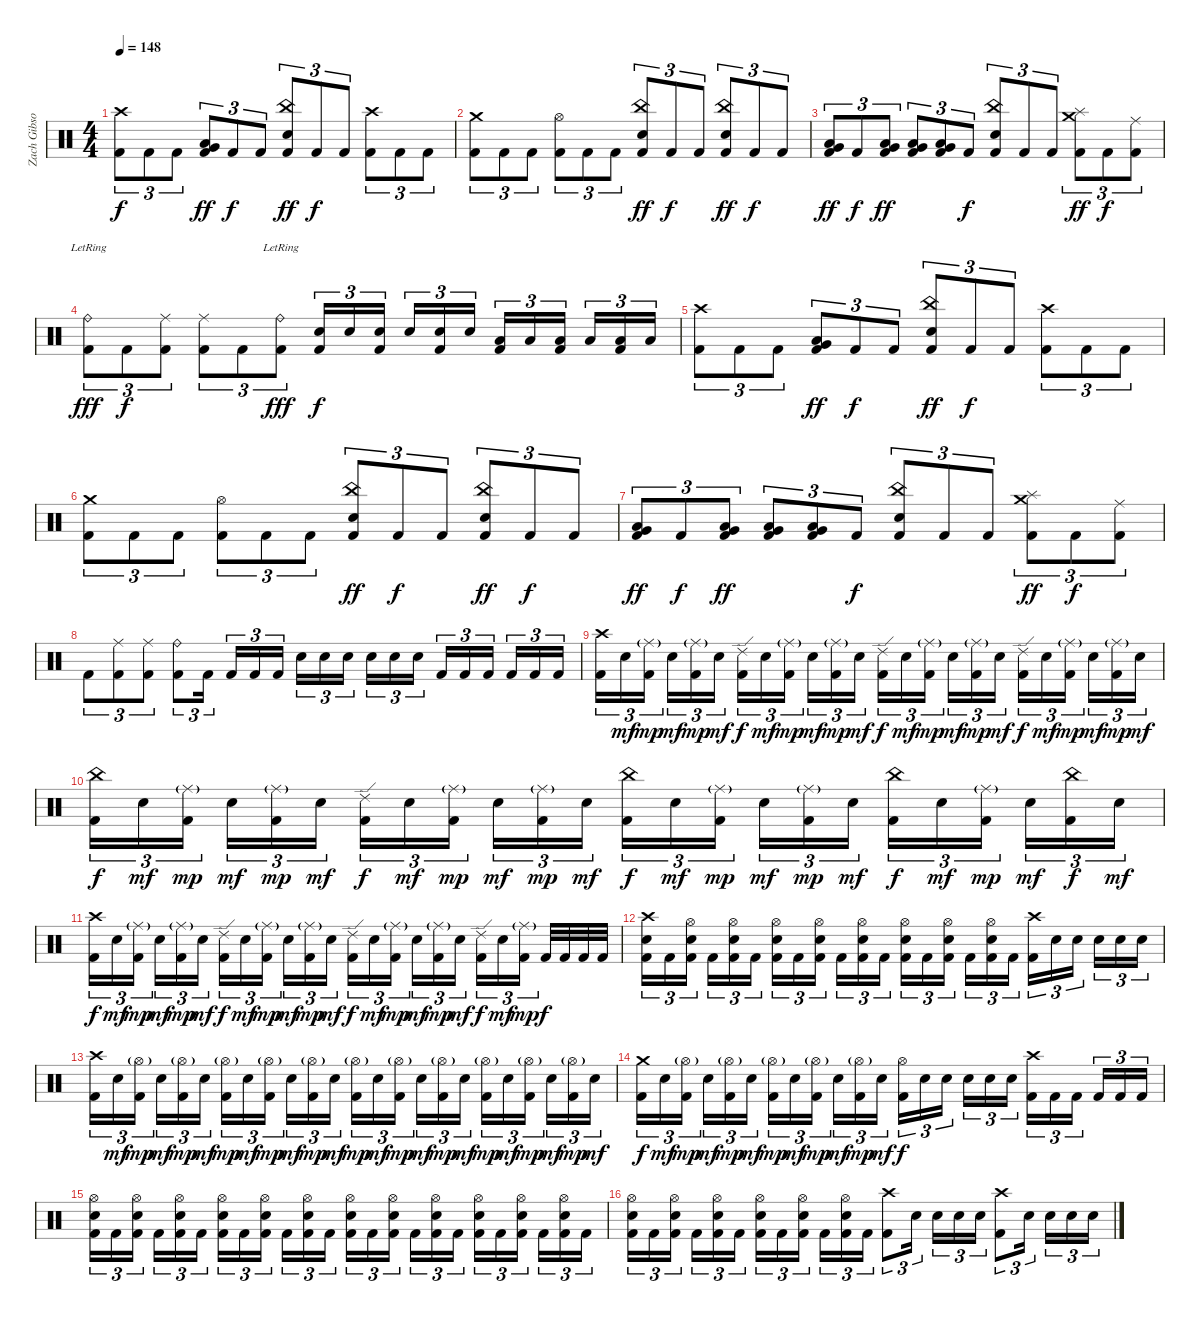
\track ("Zach Gibson (Ex-Drums)" "Zach Gibso") {instrument percussion}
\staff {score}
\articulation defaults
\ts (4 4)
\tempo 148
\clef neutral
\ks c
("Crash high (hit)" "Kick (hit) 2").8{tu (3 2) dy f} "Kick (hit) 2".8{tu (3 2)} "Kick (hit) 2".8{tu (3 2)} ("Very Low Tom (hit)" "Low Tom (hit)" "Kick (hit) 2").8{tu (3 2) dy ff} "Kick (hit) 2".8{tu (3 2) dy f} "Kick (hit) 2".8{tu (3 2)} ("China (hit)" "Snare (hit) 2" "Kick (hit) 2").8{tu (3 2) dy ff} "Kick (hit) 2".8{tu (3 2) dy f} "Kick (hit) 2".8{tu (3 2)} ("Crash high (hit)" "Kick (hit) 2").8{tu (3 2)} "Kick (hit) 2".8{tu (3 2)} "Kick (hit) 2".8{tu (3 2)} |
("Crash medium (hit)" "Kick (hit) 2").8{tu (3 2)} "Kick (hit) 2".8{tu (3 2)} "Kick (hit) 2".8{tu (3 2)} ("Hi-Hat (open)" "Kick (hit) 2").8{tu (3 2)} "Kick (hit) 2".8{tu (3 2)} "Kick (hit) 2".8{tu (3 2)} ("China (hit)" "Snare (hit) 2" "Kick (hit) 2").8{tu (3 2) dy ff} "Kick (hit) 2".8{tu (3 2) dy f} "Kick (hit) 2".8{tu (3 2)} ("China (hit)" "Snare (hit) 2" "Kick (hit) 2").8{tu (3 2) dy ff} "Kick (hit) 2".8{tu (3 2) dy f} "Kick (hit) 2".8{tu (3 2)} |
("Very Low Tom (hit)" "Low Tom (hit)" "Kick (hit) 2").8{tu (3 2) dy ff} "Kick (hit) 2".8{tu (3 2) dy f} ("Low Floor Tom (hit)" "Very Low Tom (hit)" "Kick (hit) 2").8{tu (3 2) dy ff} ("Low Floor Tom (hit)" "Very Low Tom (hit)" "Kick (hit) 2").8{tu (3 2)} ("Low Floor Tom (hit)" "Very Low Tom (hit)" "Kick (hit) 2").8{tu (3 2)} "Kick (hit) 2".8{tu (3 2) dy f} ("China (hit)" "Snare (hit) 2" "Kick (hit) 2").8{tu (3 2)} "Kick (hit) 2".8{tu (3 2)} "Kick (hit) 2".8{tu (3 2)} ("Crash medium (hit)" "Splash (hit)" "Kick (hit) 2").8{tu (3 2) dy ff} "Kick (hit) 2".8{tu (3 2) dy f} ("Ride (middle)" "Kick (hit) 2").8{tu (3 2)} |
("Ride (bell)"{lr} "Kick (hit) 2").8{tu (3 2) dy fff} "Kick (hit) 2".8{tu (3 2) dy f} ("Ride (middle)" "Kick (hit) 2").8{tu (3 2)} ("Ride (middle)" "Kick (hit) 2").8{tu (3 2)} "Kick (hit) 2".8{tu (3 2)} ("Ride (bell)"{lr} "Kick (hit) 2").8{tu (3 2) dy fff} ("Snare (hit) 2" "Kick (hit) 2").16{tu (3 2) dy f} "Snare (hit) 2".16{tu (3 2)} ("Snare (hit) 2" "Kick (hit) 2").16{tu (3 2)} "Snare (hit) 2".16{tu (3 2)} ("Snare (hit) 2" "Kick (hit) 2").16{tu (3 2)} "Snare (hit) 2".16{tu (3 2)} ("Low Tom (hit)" "Kick (hit) 2").16{tu (3 2)} "Low Tom (hit)".16{tu (3 2)} ("Low Tom (hit)" "Kick (hit) 2").16{tu (3 2)} "Low Tom (hit)".16{tu (3 2)} ("Low Tom (hit)" "Kick (hit) 2").16{tu (3 2)} "Low Tom (hit)".16{tu (3 2)} |
("Crash high (hit)" "Kick (hit) 2").8{tu (3 2)} "Kick (hit) 2".8{tu (3 2)} "Kick (hit) 2".8{tu (3 2)} ("Very Low Tom (hit)" "Low Tom (hit)" "Kick (hit) 2").8{tu (3 2) dy ff} "Kick (hit) 2".8{tu (3 2) dy f} "Kick (hit) 2".8{tu (3 2)} ("China (hit)" "Snare (hit) 2" "Kick (hit) 2").8{tu (3 2) dy ff} "Kick (hit) 2".8{tu (3 2) dy f} "Kick (hit) 2".8{tu (3 2)} ("Crash high (hit)" "Kick (hit) 2").8{tu (3 2)} "Kick (hit) 2".8{tu (3 2)} "Kick (hit) 2".8{tu (3 2)} |
("Crash medium (hit)" "Kick (hit) 2").8{tu (3 2)} "Kick (hit) 2".8{tu (3 2)} "Kick (hit) 2".8{tu (3 2)} ("Hi-Hat (open)" "Kick (hit) 2").8{tu (3 2)} "Kick (hit) 2".8{tu (3 2)} "Kick (hit) 2".8{tu (3 2)} ("China (hit)" "Snare (hit) 2" "Kick (hit) 2").8{tu (3 2) dy ff} "Kick (hit) 2".8{tu (3 2) dy f} "Kick (hit) 2".8{tu (3 2)} ("China (hit)" "Snare (hit) 2" "Kick (hit) 2").8{tu (3 2) dy ff} "Kick (hit) 2".8{tu (3 2) dy f} "Kick (hit) 2".8{tu (3 2)} |
("Very Low Tom (hit)" "Low Tom (hit)" "Kick (hit) 2").8{tu (3 2) dy ff} "Kick (hit) 2".8{tu (3 2) dy f} ("Low Floor Tom (hit)" "Very Low Tom (hit)" "Kick (hit) 2").8{tu (3 2) dy ff} ("Low Floor Tom (hit)" "Very Low Tom (hit)" "Kick (hit) 2").8{tu (3 2)} ("Low Floor Tom (hit)" "Very Low Tom (hit)" "Kick (hit) 2").8{tu (3 2)} "Kick (hit) 2".8{tu (3 2) dy f} ("China (hit)" "Snare (hit) 2" "Kick (hit) 2").8{tu (3 2)} "Kick (hit) 2".8{tu (3 2)} "Kick (hit) 2".8{tu (3 2)} ("Crash medium (hit)" "Splash (hit)" "Kick (hit) 2").8{tu (3 2) dy ff} "Kick (hit) 2".8{tu (3 2) dy f} ("Ride (middle)" "Kick (hit) 2").8{tu (3 2)} |
"Kick (hit) 2".8{tu (3 2)} ("Ride (middle)" "Kick (hit) 2").8{tu (3 2)} ("Ride (middle)" "Kick (hit) 2").8{tu (3 2)} ("Ride (bell)" "Kick (hit) 2").8{tu (3 2)} "Kick (hit) 2".16{tu (3 2)} "Kick (hit) 2".16{tu (3 2)} "Kick (hit) 2".16{tu (3 2)} "Kick (hit) 2".16{tu (3 2)} "Snare (hit) 2".16{tu (3 2)} "Snare (hit) 2".16{tu (3 2)} "Snare (hit) 2".16{tu (3 2)} "Snare (hit) 2".16{tu (3 2)} "Snare (hit) 2".16{tu (3 2)} "Snare (hit) 2".16{tu (3 2)} "Kick (hit) 2".16{tu (3 2)} "Kick (hit) 2".16{tu (3 2)} "Kick (hit) 2".16{tu (3 2)} "Kick (hit) 2".16{tu (3 2)} "Kick (hit) 2".16{tu (3 2)} "Kick (hit) 2".16{tu (3 2)} |
("Crash high (hit)" "Kick (hit) 2").16{tu (3 2)} "Snare (hit) 2".16{tu (3 2) dy mf} ("Ride (middle)"{g} "Kick (hit) 2").16{tu (3 2) dy mp} "Snare (hit) 2".16{tu (3 2) dy mf} ("Ride (middle)"{g} "Kick (hit) 2").16{tu (3 2) dy mp} "Snare (hit) 2".16{tu (3 2) dy mf} ("Ride (edge) 2" "Kick (hit) 2").16{tu (3 2) dy f} "Snare (hit) 2".16{tu (3 2) dy mf} ("Ride (middle)"{g} "Kick (hit) 2").16{tu (3 2) dy mp} "Snare (hit) 2".16{tu (3 2) dy mf} ("Ride (middle)"{g} "Kick (hit) 2").16{tu (3 2) dy mp} "Snare (hit) 2".16{tu (3 2) dy mf} ("Ride (edge) 2" "Kick (hit) 2").16{tu (3 2) dy f} "Snare (hit) 2".16{tu (3 2) dy mf} ("Ride (middle)"{g} "Kick (hit) 2").16{tu (3 2) dy mp} "Snare (hit) 2".16{tu (3 2) dy mf} ("Ride (middle)"{g} "Kick (hit) 2").16{tu (3 2) dy mp} "Snare (hit) 2".16{tu (3 2) dy mf} ("Ride (edge) 2" "Kick (hit) 2").16{tu (3 2) dy f} "Snare (hit) 2".16{tu (3 2) dy mf} ("Ride (middle)"{g} "Kick (hit) 2").16{tu (3 2) dy mp} "Snare (hit) 2".16{tu (3 2) dy mf} ("Ride (middle)"{g} "Kick (hit) 2").16{tu (3 2) dy mp} "Snare (hit) 2".16{tu (3 2) dy mf} |
("China (hit)" "Kick (hit) 2").16{tu (3 2) dy f} "Snare (hit) 2".16{tu (3 2) dy mf} ("Ride (middle)"{g} "Kick (hit) 2").16{tu (3 2) dy mp} "Snare (hit) 2".16{tu (3 2) dy mf} ("Ride (middle)"{g} "Kick (hit) 2").16{tu (3 2) dy mp} "Snare (hit) 2".16{tu (3 2) dy mf} ("Ride (edge) 2" "Kick (hit) 2").16{tu (3 2) dy f} "Snare (hit) 2".16{tu (3 2) dy mf} ("Ride (middle)"{g} "Kick (hit) 2").16{tu (3 2) dy mp} "Snare (hit) 2".16{tu (3 2) dy mf} ("Ride (middle)"{g} "Kick (hit) 2").16{tu (3 2) dy mp} "Snare (hit) 2".16{tu (3 2) dy mf} ("China (hit)" "Kick (hit) 2").16{tu (3 2) dy f} "Snare (hit) 2".16{tu (3 2) dy mf} ("Ride (middle)"{g} "Kick (hit) 2").16{tu (3 2) dy mp} "Snare (hit) 2".16{tu (3 2) dy mf} ("Ride (middle)"{g} "Kick (hit) 2").16{tu (3 2) dy mp} "Snare (hit) 2".16{tu (3 2) dy mf} ("China (hit)" "Kick (hit) 2").16{tu (3 2) dy f} "Snare (hit) 2".16{tu (3 2) dy mf} ("Ride (middle)"{g} "Kick (hit) 2").16{tu (3 2) dy mp} "Snare (hit) 2".16{tu (3 2) dy mf} ("China (hit)" "Kick (hit) 2").16{tu (3 2) dy f} "Snare (hit) 2".16{tu (3 2) dy mf} |
("Crash high (hit)" "Kick (hit) 2").16{tu (3 2) dy f} "Snare (hit) 2".16{tu (3 2) dy mf} ("Ride (middle)"{g} "Kick (hit) 2").16{tu (3 2) dy mp} "Snare (hit) 2".16{tu (3 2) dy mf} ("Ride (middle)"{g} "Kick (hit) 2").16{tu (3 2) dy mp} "Snare (hit) 2".16{tu (3 2) dy mf} ("Ride (edge) 2" "Kick (hit) 2").16{tu (3 2) dy f} "Snare (hit) 2".16{tu (3 2) dy mf} ("Ride (middle)"{g} "Kick (hit) 2").16{tu (3 2) dy mp} "Snare (hit) 2".16{tu (3 2) dy mf} ("Ride (middle)"{g} "Kick (hit) 2").16{tu (3 2) dy mp} "Snare (hit) 2".16{tu (3 2) dy mf} ("Ride (edge) 2" "Kick (hit) 2").16{tu (3 2) dy f} "Snare (hit) 2".16{tu (3 2) dy mf} ("Ride (middle)"{g} "Kick (hit) 2").16{tu (3 2) dy mp} "Snare (hit) 2".16{tu (3 2) dy mf} ("Ride (middle)"{g} "Kick (hit) 2").16{tu (3 2) dy mp} "Snare (hit) 2".16{tu (3 2) dy mf} ("Ride (edge) 2" "Kick (hit) 2").16{tu (3 2) dy f} "Snare (hit) 2".16{tu (3 2) dy mf} ("Ride (middle)"{g} "Kick (hit) 2").16{tu (3 2) dy mp} "Kick (hit) 2".32{dy f} "Kick (hit) 2".32 "Kick (hit) 2".32 "Kick (hit) 2".32 |
("Crash high (hit)" "Snare (hit) 2" "Kick (hit) 2").16{tu (3 2)} "Kick (hit) 2".16{tu (3 2)} ("Hi-Hat (open)" "Snare (hit) 2" "Kick (hit) 2").16{tu (3 2)} "Kick (hit) 2".16{tu (3 2)} ("Hi-Hat (open)" "Snare (hit) 2" "Kick (hit) 2").16{tu (3 2)} "Kick (hit) 2".16{tu (3 2)} ("Hi-Hat (open)" "Snare (hit) 2" "Kick (hit) 2").16{tu (3 2)} "Kick (hit) 2".16{tu (3 2)} ("Hi-Hat (open)" "Snare (hit) 2" "Kick (hit) 2").16{tu (3 2)} "Kick (hit) 2".16{tu (3 2)} ("Hi-Hat (open)" "Snare (hit) 2" "Kick (hit) 2").16{tu (3 2)} "Kick (hit) 2".16{tu (3 2)} ("Hi-Hat (open)" "Snare (hit) 2" "Kick (hit) 2").16{tu (3 2)} "Kick (hit) 2".16{tu (3 2)} ("Hi-Hat (open)" "Snare (hit) 2" "Kick (hit) 2").16{tu (3 2)} "Kick (hit) 2".16{tu (3 2)} ("Hi-Hat (open)" "Snare (hit) 2" "Kick (hit) 2").16{tu (3 2)} "Kick (hit) 2".16{tu (3 2)} ("Crash high (hit)" "Kick (hit) 2").16{tu (3 2)} "Snare (hit) 2".16{tu (3 2)} "Snare (hit) 2".16{tu (3 2)} "Snare (hit) 2".16{tu (3 2)} "Snare (hit) 2".16{tu (3 2)} "Snare (hit) 2".16{tu (3 2)} |
("Crash high (hit)" "Kick (hit) 2").16{tu (3 2)} "Snare (hit) 2".16{tu (3 2) dy mf} ("Hi-Hat (open)"{g} "Kick (hit) 2").16{tu (3 2) dy mp} "Snare (hit) 2".16{tu (3 2) dy mf} ("Hi-Hat (open)"{g} "Kick (hit) 2").16{tu (3 2) dy mp} "Snare (hit) 2".16{tu (3 2) dy mf} ("Hi-Hat (open)"{g} "Kick (hit) 2").16{tu (3 2) dy mp} "Snare (hit) 2".16{tu (3 2) dy mf} ("Hi-Hat (open)"{g} "Kick (hit) 2").16{tu (3 2) dy mp} "Snare (hit) 2".16{tu (3 2) dy mf} ("Hi-Hat (open)"{g} "Kick (hit) 2").16{tu (3 2) dy mp} "Snare (hit) 2".16{tu (3 2) dy mf} ("Hi-Hat (open)"{g} "Kick (hit) 2").16{tu (3 2) dy mp} "Snare (hit) 2".16{tu (3 2) dy mf} ("Hi-Hat (open)"{g} "Kick (hit) 2").16{tu (3 2) dy mp} "Snare (hit) 2".16{tu (3 2) dy mf} ("Hi-Hat (open)"{g} "Kick (hit) 2").16{tu (3 2) dy mp} "Snare (hit) 2".16{tu (3 2) dy mf} ("Hi-Hat (open)"{g} "Kick (hit) 2").16{tu (3 2) dy mp} "Snare (hit) 2".16{tu (3 2) dy mf} ("Hi-Hat (open)"{g} "Kick (hit) 2").16{tu (3 2) dy mp} "Snare (hit) 2".16{tu (3 2) dy mf} ("Hi-Hat (open)"{g} "Kick (hit) 2").16{tu (3 2) dy mp} "Snare (hit) 2".16{tu (3 2) dy mf} |
("Crash medium (hit)" "Kick (hit) 2").16{tu (3 2) dy f} "Snare (hit) 2".16{tu (3 2) dy mf} ("Hi-Hat (open)"{g} "Kick (hit) 2").16{tu (3 2) dy mp} "Snare (hit) 2".16{tu (3 2) dy mf} ("Hi-Hat (open)"{g} "Kick (hit) 2").16{tu (3 2) dy mp} "Snare (hit) 2".16{tu (3 2) dy mf} ("Hi-Hat (open)"{g} "Kick (hit) 2").16{tu (3 2) dy mp} "Snare (hit) 2".16{tu (3 2) dy mf} ("Hi-Hat (open)"{g} "Kick (hit) 2").16{tu (3 2) dy mp} "Snare (hit) 2".16{tu (3 2) dy mf} ("Hi-Hat (open)"{g} "Kick (hit) 2").16{tu (3 2) dy mp} "Snare (hit) 2".16{tu (3 2) dy mf} ("Hi-Hat (open)" "Kick (hit) 2").16{tu (3 2) dy f} "Snare (hit) 2".16{tu (3 2)} "Snare (hit) 2".16{tu (3 2)} "Snare (hit) 2".16{tu (3 2)} "Snare (hit) 2".16{tu (3 2)} "Snare (hit) 2".16{tu (3 2)} ("Crash high (hit)" "Kick (hit) 2").16{tu (3 2)} "Kick (hit) 2".16{tu (3 2)} "Kick (hit) 2".16{tu (3 2)} "Kick (hit) 2".16{tu (3 2)} "Kick (hit) 2".16{tu (3 2)} "Kick (hit) 2".16{tu (3 2)} |
("Hi-Hat (open)" "Snare (hit) 2" "Kick (hit) 2").16{tu (3 2)} "Kick (hit) 2".16{tu (3 2)} ("Hi-Hat (open)" "Snare (hit) 2" "Kick (hit) 2").16{tu (3 2)} "Kick (hit) 2".16{tu (3 2)} ("Hi-Hat (open)" "Snare (hit) 2" "Kick (hit) 2").16{tu (3 2)} "Kick (hit) 2".16{tu (3 2)} ("Hi-Hat (open)" "Snare (hit) 2" "Kick (hit) 2").16{tu (3 2)} "Kick (hit) 2".16{tu (3 2)} ("Hi-Hat (open)" "Snare (hit) 2" "Kick (hit) 2").16{tu (3 2)} "Kick (hit) 2".16{tu (3 2)} ("Hi-Hat (open)" "Snare (hit) 2" "Kick (hit) 2").16{tu (3 2)} "Kick (hit) 2".16{tu (3 2)} ("Hi-Hat (open)" "Snare (hit) 2" "Kick (hit) 2").16{tu (3 2)} "Kick (hit) 2".16{tu (3 2)} ("Hi-Hat (open)" "Snare (hit) 2" "Kick (hit) 2").16{tu (3 2)} "Kick (hit) 2".16{tu (3 2)} ("Hi-Hat (open)" "Snare (hit) 2" "Kick (hit) 2").16{tu (3 2)} "Kick (hit) 2".16{tu (3 2)} ("Hi-Hat (open)" "Snare (hit) 2" "Kick (hit) 2").16{tu (3 2)} "Kick (hit) 2".16{tu (3 2)} ("Hi-Hat (open)" "Snare (hit) 2" "Kick (hit) 2").16{tu (3 2)} "Kick (hit) 2".16{tu (3 2)} ("Hi-Hat (open)" "Snare (hit) 2" "Kick (hit) 2").16{tu (3 2)} "Kick (hit) 2".16{tu (3 2)} |
("Hi-Hat (open)" "Snare (hit) 2" "Kick (hit) 2").16{tu (3 2)} "Kick (hit) 2".16{tu (3 2)} ("Hi-Hat (open)" "Snare (hit) 2" "Kick (hit) 2").16{tu (3 2)} "Kick (hit) 2".16{tu (3 2)} ("Hi-Hat (open)" "Snare (hit) 2" "Kick (hit) 2").16{tu (3 2)} "Kick (hit) 2".16{tu (3 2)} ("Hi-Hat (open)" "Snare (hit) 2" "Kick (hit) 2").16{tu (3 2)} "Kick (hit) 2".16{tu (3 2)} ("Hi-Hat (open)" "Snare (hit) 2" "Kick (hit) 2").16{tu (3 2)} "Kick (hit) 2".16{tu (3 2)} ("Hi-Hat (open)" "Snare (hit) 2" "Kick (hit) 2").16{tu (3 2)} "Kick (hit) 2".16{tu (3 2)} ("Crash high (hit)" "Kick (hit) 2").8{tu (3 2)} "Snare (hit) 2".16{tu (3 2)} "Snare (hit) 2".16{tu (3 2)} "Snare (hit) 2".16{tu (3 2)} "Snare (hit) 2".16{tu (3 2)} ("Crash high (hit)" "Kick (hit) 2").8{tu (3 2)} "Snare (hit) 2".16{tu (3 2)} "Snare (hit) 2".16{tu (3 2)} "Snare (hit) 2".16{tu (3 2)} "Snare (hit) 2".16{tu (3 2)}
